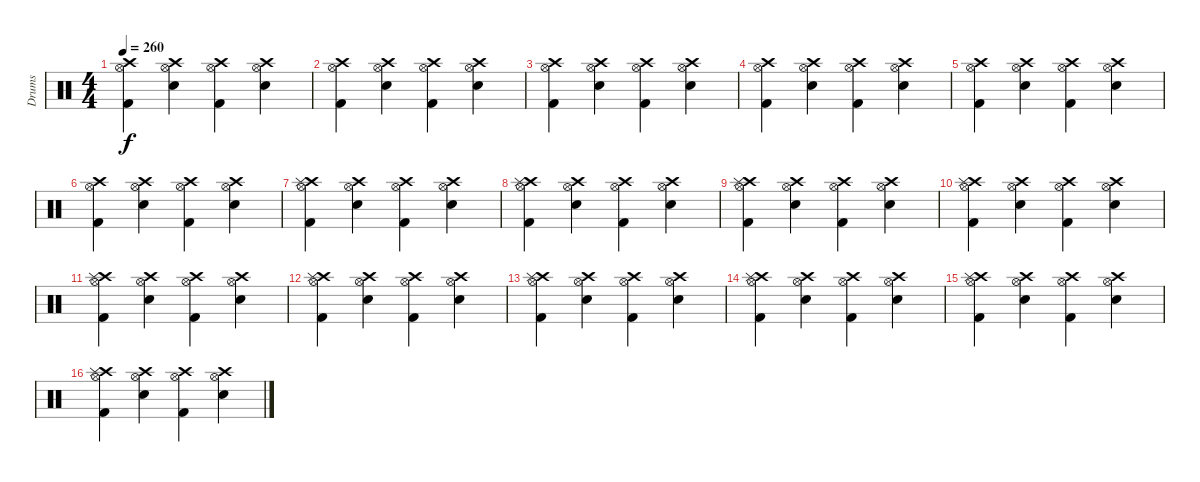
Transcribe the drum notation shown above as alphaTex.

\track ("Drums" "Drums") {instrument percussion}
\staff {score}
\articulation defaults
\ts (4 4)
\tempo 260
\clef neutral
\ks c
("Crash high (hit)" "Kick (hit) 2" "Hi-Hat (open)").4{dy f} ("Crash high (hit)" "Electric Snare (hit)" "Hi-Hat (open)").4 ("Crash high (hit)" "Kick (hit) 2" "Hi-Hat (open)").4 ("Crash high (hit)" "Electric Snare (hit)" "Hi-Hat (open)").4 |
("Crash high (hit)" "Kick (hit) 2" "Hi-Hat (open)").4 ("Crash high (hit)" "Electric Snare (hit)" "Hi-Hat (open)").4 ("Crash high (hit)" "Kick (hit) 2" "Hi-Hat (open)").4 ("Crash high (hit)" "Electric Snare (hit)" "Hi-Hat (open)").4 |
("Crash high (hit)" "Kick (hit) 2" "Hi-Hat (open)").4 ("Crash high (hit)" "Electric Snare (hit)" "Hi-Hat (open)").4 ("Crash high (hit)" "Kick (hit) 2" "Hi-Hat (open)").4 ("Crash high (hit)" "Electric Snare (hit)" "Hi-Hat (open)").4 |
("Crash high (hit)" "Kick (hit) 2" "Hi-Hat (open)").4 ("Crash high (hit)" "Electric Snare (hit)" "Hi-Hat (open)").4 ("Crash high (hit)" "Kick (hit) 2" "Hi-Hat (open)").4 ("Crash high (hit)" "Electric Snare (hit)" "Hi-Hat (open)").4 |
("Crash high (hit)" "Kick (hit) 2" "Hi-Hat (open)").4 ("Crash high (hit)" "Electric Snare (hit)" "Hi-Hat (open)").4 ("Crash high (hit)" "Kick (hit) 2" "Hi-Hat (open)").4 ("Crash high (hit)" "Electric Snare (hit)" "Hi-Hat (open)").4 |
("Crash high (hit)" "Kick (hit) 2" "Hi-Hat (open)").4 ("Crash high (hit)" "Electric Snare (hit)" "Hi-Hat (open)").4 ("Crash high (hit)" "Kick (hit) 2" "Hi-Hat (open)").4 ("Crash high (hit)" "Electric Snare (hit)" "Hi-Hat (open)").4 |
("Crash high (hit)" "Kick (hit) 2" "Hi-Hat (open)" "Splash (hit)").4 ("Crash high (hit)" "Electric Snare (hit)" "Hi-Hat (open)").4 ("Crash high (hit)" "Kick (hit) 2" "Hi-Hat (open)").4 ("Crash high (hit)" "Electric Snare (hit)" "Hi-Hat (open)").4 |
("Crash high (hit)" "Kick (hit) 2" "Hi-Hat (open)" "Splash (hit)").4 ("Crash high (hit)" "Electric Snare (hit)" "Hi-Hat (open)").4 ("Crash high (hit)" "Kick (hit) 2" "Hi-Hat (open)").4 ("Crash high (hit)" "Electric Snare (hit)" "Hi-Hat (open)").4 |
("Crash high (hit)" "Kick (hit) 2" "Hi-Hat (open)" "Splash (hit)").4 ("Crash high (hit)" "Electric Snare (hit)" "Hi-Hat (open)").4 ("Crash high (hit)" "Kick (hit) 2" "Hi-Hat (open)").4 ("Crash high (hit)" "Electric Snare (hit)" "Hi-Hat (open)").4 |
("Crash high (hit)" "Kick (hit) 2" "Hi-Hat (open)" "Splash (hit)").4 ("Crash high (hit)" "Electric Snare (hit)" "Hi-Hat (open)").4 ("Crash high (hit)" "Kick (hit) 2" "Hi-Hat (open)").4 ("Crash high (hit)" "Electric Snare (hit)" "Hi-Hat (open)").4 |
("Crash high (hit)" "Kick (hit) 2" "Hi-Hat (open)" "Splash (hit)").4 ("Crash high (hit)" "Electric Snare (hit)" "Hi-Hat (open)").4 ("Crash high (hit)" "Kick (hit) 2" "Hi-Hat (open)").4 ("Crash high (hit)" "Electric Snare (hit)" "Hi-Hat (open)").4 |
("Crash high (hit)" "Kick (hit) 2" "Hi-Hat (open)" "Splash (hit)").4 ("Crash high (hit)" "Electric Snare (hit)" "Hi-Hat (open)").4 ("Crash high (hit)" "Kick (hit) 2" "Hi-Hat (open)").4 ("Crash high (hit)" "Electric Snare (hit)" "Hi-Hat (open)").4 |
("Crash high (hit)" "Kick (hit) 2" "Hi-Hat (open)" "Splash (hit)").4 ("Crash high (hit)" "Electric Snare (hit)" "Hi-Hat (open)").4 ("Crash high (hit)" "Kick (hit) 2" "Hi-Hat (open)").4 ("Crash high (hit)" "Electric Snare (hit)" "Hi-Hat (open)").4 |
("Crash high (hit)" "Kick (hit) 2" "Hi-Hat (open)" "Splash (hit)").4 ("Crash high (hit)" "Electric Snare (hit)" "Hi-Hat (open)").4 ("Crash high (hit)" "Kick (hit) 2" "Hi-Hat (open)").4 ("Crash high (hit)" "Electric Snare (hit)" "Hi-Hat (open)").4 |
("Crash high (hit)" "Kick (hit) 2" "Hi-Hat (open)" "Splash (hit)").4 ("Crash high (hit)" "Electric Snare (hit)" "Hi-Hat (open)").4 ("Crash high (hit)" "Kick (hit) 2" "Hi-Hat (open)").4 ("Crash high (hit)" "Electric Snare (hit)" "Hi-Hat (open)").4 |
("Crash high (hit)" "Kick (hit) 2" "Hi-Hat (open)" "Splash (hit)").4 ("Crash high (hit)" "Electric Snare (hit)" "Hi-Hat (open)").4 ("Crash high (hit)" "Kick (hit) 2" "Hi-Hat (open)").4 ("Crash high (hit)" "Electric Snare (hit)" "Hi-Hat (open)").4
